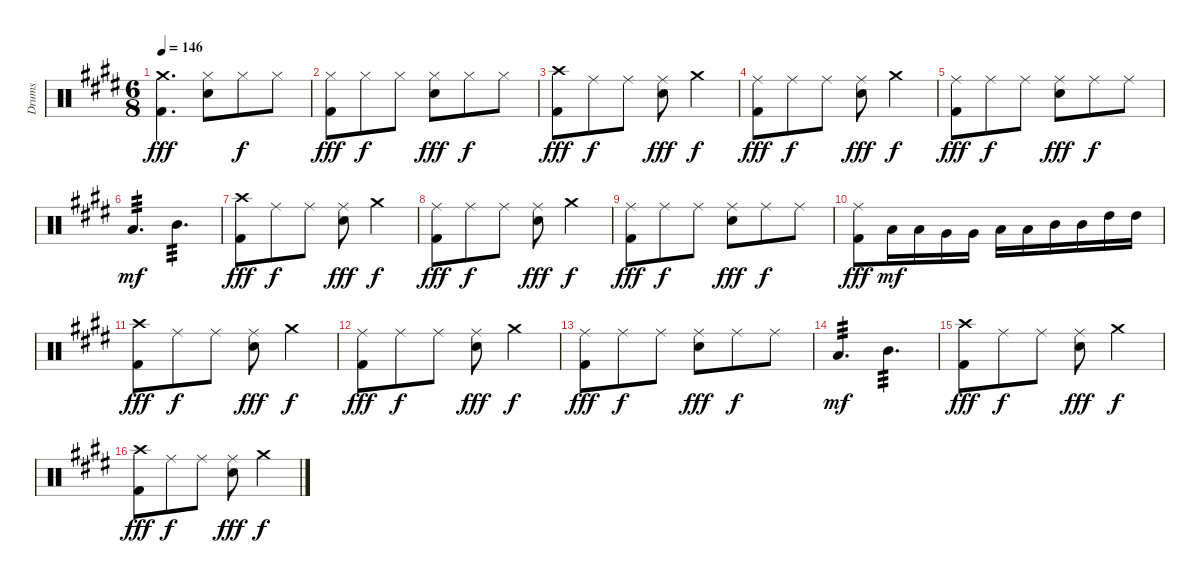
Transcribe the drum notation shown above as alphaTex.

\track ("Drums" "Drums") {instrument percussion}
\staff {score}
\articulation defaults
\ts (6 8)
\tempo 146
\clef neutral
\ks e
("Crash medium (hit)" "Kick (hit) 2").4{d dy fff} ("Hi-Hat (closed)" "Snare (hit) 2").8 "Hi-Hat (closed)".8{dy f} "Hi-Hat (closed)".8 |
("Hi-Hat (closed)" "Kick (hit) 2").8{dy fff} "Hi-Hat (closed)".8{dy f} "Hi-Hat (closed)".8 ("Hi-Hat (closed)" "Snare (hit) 2").8{dy fff} "Hi-Hat (closed)".8{dy f} "Hi-Hat (closed)".8 |
("Crash high (hit)" "Kick (hit) 2").8{dy fff} "Ride (middle)".8{dy f} "Ride (middle)".8 ("Ride (middle)" "Snare (hit) 2").8{dy fff} "Crash medium (hit)".4{dy f} |
("Ride (middle)" "Kick (hit) 2").8{dy fff} "Ride (middle)".8{dy f} "Ride (middle)".8 ("Ride (middle)" "Snare (hit) 2").8{dy fff} "Crash medium (hit)".4{dy f} |
("Ride (middle)" "Kick (hit) 2").8{dy fff} "Ride (middle)".8{dy f} "Ride (middle)".8 ("Ride (middle)" "Snare (hit) 2").8{dy fff} "Ride (middle)".8{dy f} "Ride (middle)".8 |
"Low Tom (hit)".4{d tp 3 dy mf} "Mid Tom (hit)".4{d tp 3} |
("Crash high (hit)" "Kick (hit) 2").8{dy fff} "Ride (middle)".8{dy f} "Ride (middle)".8 ("Ride (middle)" "Snare (hit) 2").8{dy fff} "Crash medium (hit)".4{dy f} |
("Ride (middle)" "Kick (hit) 2").8{dy fff} "Ride (middle)".8{dy f} "Ride (middle)".8 ("Ride (middle)" "Snare (hit) 2").8{dy fff} "Crash medium (hit)".4{dy f} |
("Ride (middle)" "Kick (hit) 2").8{dy fff} "Ride (middle)".8{dy f} "Ride (middle)".8 ("Ride (middle)" "Snare (hit) 2").8{dy fff} "Ride (middle)".8{dy f} "Ride (middle)".8 |
("Ride (middle)" "Kick (hit) 2").8{dy fff} "Low Floor Tom (hit)".16{dy mf} "Low Floor Tom (hit)".16 "Very Low Tom (hit)".16 "Very Low Tom (hit)".16 "Low Tom (hit)".16 "Low Tom (hit)".16 "Mid Tom (hit)".16 "Mid Tom (hit)".16 "High Tom (hit)".16 "High Tom (hit)".16 |
("Crash high (hit)" "Kick (hit) 2").8{dy fff} "Ride (middle)".8{dy f} "Ride (middle)".8 ("Ride (middle)" "Snare (hit) 2").8{dy fff} "Crash medium (hit)".4{dy f} |
("Ride (middle)" "Kick (hit) 2").8{dy fff} "Ride (middle)".8{dy f} "Ride (middle)".8 ("Ride (middle)" "Snare (hit) 2").8{dy fff} "Crash medium (hit)".4{dy f} |
("Ride (middle)" "Kick (hit) 2").8{dy fff} "Ride (middle)".8{dy f} "Ride (middle)".8 ("Ride (middle)" "Snare (hit) 2").8{dy fff} "Ride (middle)".8{dy f} "Ride (middle)".8 |
"Low Tom (hit)".4{d tp 3 dy mf} "Mid Tom (hit)".4{d tp 3} |
("Crash high (hit)" "Kick (hit) 2").8{dy fff} "Ride (middle)".8{dy f} "Ride (middle)".8 ("Ride (middle)" "Snare (hit) 2").8{dy fff} "Crash medium (hit)".4{dy f} |
("Crash high (hit)" "Kick (hit) 2").8{dy fff} "Ride (middle)".8{dy f} "Ride (middle)".8 ("Ride (middle)" "Snare (hit) 2").8{dy fff} "Crash medium (hit)".4{dy f}
